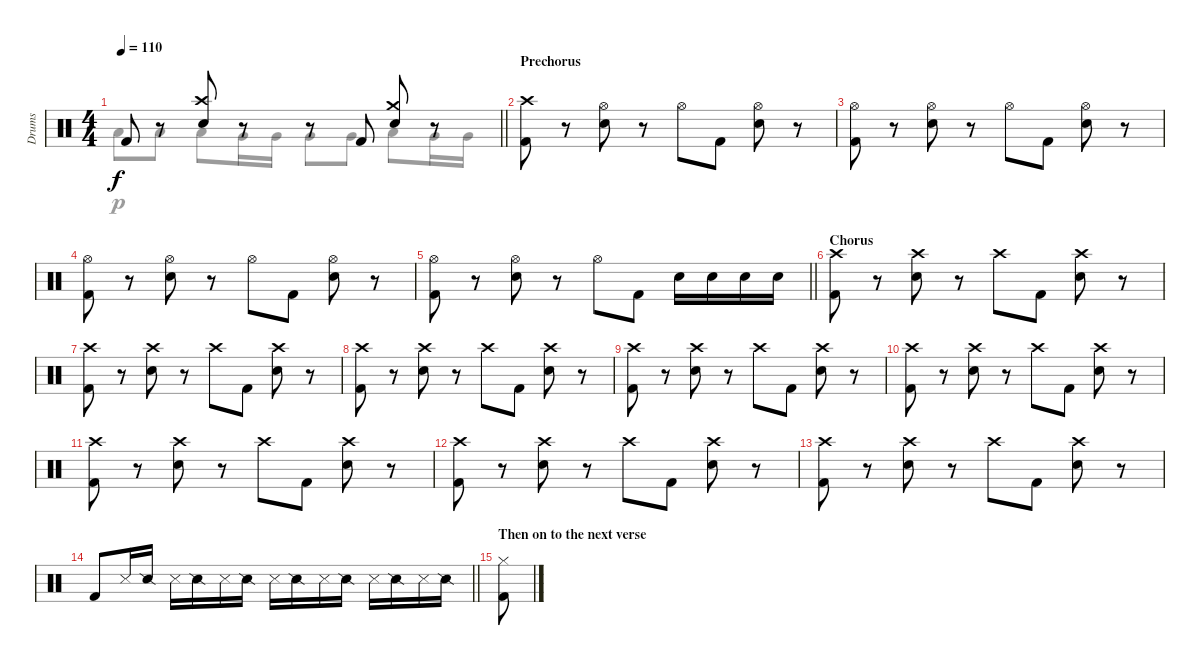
\track ("Drums" "Drums") {instrument percussion}
\staff {score}
\articulation defaults
\voice
\ts (4 4)
\tempo 110
\clef neutral
\barLineRight lightlight
\ks c "Kick (hit) 2".8{dy f}
r.8 ("Crash high (hit)" "Electric Snare (hit)").8 r.8 r.8 "Kick (hit) 2".8 ("Crash medium (hit)" "Electric Snare (hit)").8 r.8 |
\section ("" "Prechorus")
("Crash high (hit)" "Kick (hit) 2").8 r.8 ("Hi-Hat (open)" "Electric Snare (hit)").8 r.8 "Hi-Hat (open)".8 "Kick (hit) 2".8 ("Hi-Hat (open)" "Electric Snare (hit)").8 r.8 |
("Hi-Hat (open)" "Kick (hit) 2").8 r.8 ("Hi-Hat (open)" "Electric Snare (hit)").8 r.8 "Hi-Hat (open)".8 "Kick (hit) 2".8 ("Hi-Hat (open)" "Electric Snare (hit)").8 r.8 |
("Hi-Hat (open)" "Kick (hit) 2").8 r.8 ("Hi-Hat (open)" "Electric Snare (hit)").8 r.8 "Hi-Hat (open)".8 "Kick (hit) 2".8 ("Hi-Hat (open)" "Electric Snare (hit)").8 r.8 |
\barLineRight lightlight
("Hi-Hat (open)" "Kick (hit) 2").8 r.8 ("Hi-Hat (open)" "Electric Snare (hit)").8 r.8 "Hi-Hat (open)".8 "Kick (hit) 2".8 "Electric Snare (hit)".16 "Electric Snare (hit)".16 "Electric Snare (hit)".16 "Electric Snare (hit)".16 |
\section ("" "Chorus")
("Crash high (hit)" "Kick (hit) 2").8 r.8 ("Crash high (hit)" "Electric Snare (hit)").8 r.8 "Crash high (hit)".8 "Kick (hit) 2".8 ("Crash high (hit)" "Electric Snare (hit)").8 r.8 |
("Crash high (hit)" "Kick (hit) 2").8 r.8 ("Crash high (hit)" "Electric Snare (hit)").8 r.8 "Crash high (hit)".8 "Kick (hit) 2".8 ("Crash high (hit)" "Electric Snare (hit)").8 r.8 |
("Crash high (hit)" "Kick (hit) 2").8 r.8 ("Crash high (hit)" "Electric Snare (hit)").8 r.8 "Crash high (hit)".8 "Kick (hit) 2".8 ("Crash high (hit)" "Electric Snare (hit)").8 r.8 |
("Crash high (hit)" "Kick (hit) 2").8 r.8 ("Crash high (hit)" "Electric Snare (hit)").8 r.8 "Crash high (hit)".8 "Kick (hit) 2".8 ("Crash high (hit)" "Electric Snare (hit)").8 r.8 |
("Crash high (hit)" "Kick (hit) 2").8 r.8 ("Crash high (hit)" "Electric Snare (hit)").8 r.8 "Crash high (hit)".8 "Kick (hit) 2".8 ("Crash high (hit)" "Electric Snare (hit)").8 r.8 |
("Crash high (hit)" "Kick (hit) 2").8 r.8 ("Crash high (hit)" "Electric Snare (hit)").8 r.8 "Crash high (hit)".8 "Kick (hit) 2".8 ("Crash high (hit)" "Electric Snare (hit)").8 r.8 |
("Crash high (hit)" "Kick (hit) 2").8 r.8 ("Crash high (hit)" "Electric Snare (hit)").8 r.8 "Crash high (hit)".8 "Kick (hit) 2".8 ("Crash high (hit)" "Electric Snare (hit)").8 r.8 |
("Crash high (hit)" "Kick (hit) 2").8 r.8 ("Crash high (hit)" "Electric Snare (hit)").8 r.8 "Crash high (hit)".8 "Kick (hit) 2".8 ("Crash high (hit)" "Electric Snare (hit)").8 r.8 |
\barLineRight lightlight "Kick (hit) 2".8 "Metronome (hit)".16 "Snare (side stick) 2".16 "Metronome (hit)".16 "Snare (side stick) 2".16 "Metronome (hit)".16 "Snare (side stick) 2".16 "Metronome (hit)".16 "Snare (side stick) 2".16 "Metronome (hit)".16 "Snare (side stick) 2".16 "Metronome (hit)".16 "Snare (side stick) 2".16 "Metronome (hit)".16 "Snare (side stick) 2".16
|
\section ("" "Then on to the next verse")
("Hi-Hat (closed)" "Kick (hit) 2").8
\voice
\clef neutral
\ottava regular
\simile none
\barLineRight lightlight
\ks c "Low Tom (hit)".8{dy p} "Low Tom (hit)".8 "Low Tom (hit)".8 "Very Low Tom (hit)".16 "Very Low Tom (hit)".16 "Very Low Tom (hit)".8 "Very Low Tom (hit)".8 "Low Floor Tom (hit)".8 "Very Low Tom (hit)".16 "Very Low Tom (hit)".16
|
|
|
|
\barLineRight lightlight
|
|
|
|
|
|
|
|
|
\barLineRight lightlight
|
